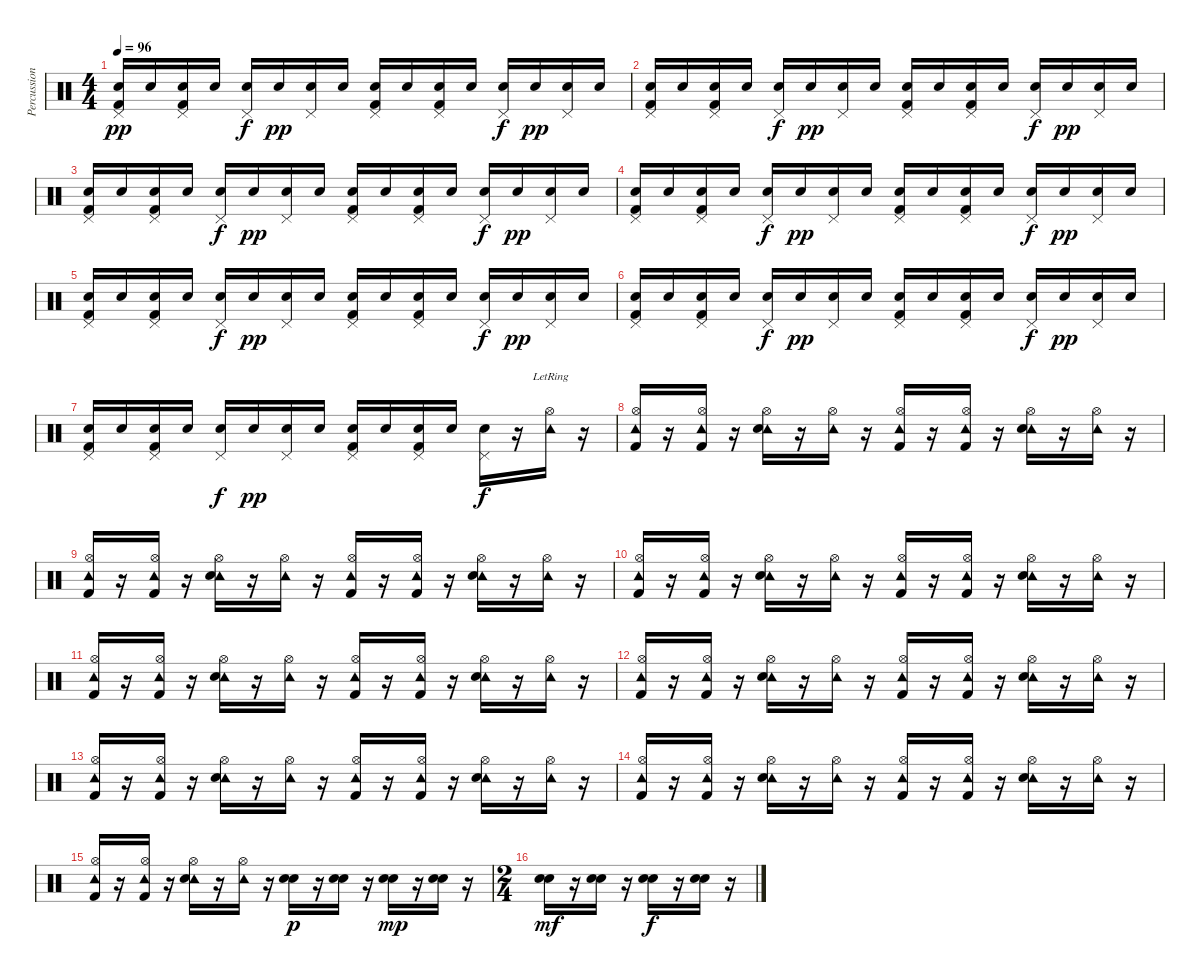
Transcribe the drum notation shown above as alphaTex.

\track ("Percussions" "Percussion") {instrument percussion}
\staff {score}
\articulation defaults
\ts (4 4)
\tempo 96
\clef neutral
\ks c
("Pedal Hi-Hat (hit)" "Snare (hit) 2" "Kick (hit) 2").16{dy pp} "Snare (hit) 2".16 ("Pedal Hi-Hat (hit)" "Snare (hit) 2" "Kick (hit) 2").16 "Snare (hit) 2".16 ("Pedal Hi-Hat (hit)" "Electric Snare (hit)").16{dy f} "Snare (hit) 2".16{dy pp} ("Pedal Hi-Hat (hit)" "Snare (hit) 2").16 "Snare (hit) 2".16 ("Pedal Hi-Hat (hit)" "Snare (hit) 2" "Kick (hit) 2").16 "Snare (hit) 2".16 ("Pedal Hi-Hat (hit)" "Snare (hit) 2" "Kick (hit) 2").16 "Snare (hit) 2".16 ("Pedal Hi-Hat (hit)" "Electric Snare (hit)").16{dy f} "Snare (hit) 2".16{dy pp} ("Pedal Hi-Hat (hit)" "Snare (hit) 2").16 "Snare (hit) 2".16 |
("Pedal Hi-Hat (hit)" "Snare (hit) 2" "Kick (hit) 2").16 "Snare (hit) 2".16 ("Pedal Hi-Hat (hit)" "Snare (hit) 2" "Kick (hit) 2").16 "Snare (hit) 2".16 ("Pedal Hi-Hat (hit)" "Electric Snare (hit)").16{dy f} "Snare (hit) 2".16{dy pp} ("Pedal Hi-Hat (hit)" "Snare (hit) 2").16 "Snare (hit) 2".16 ("Pedal Hi-Hat (hit)" "Snare (hit) 2" "Kick (hit) 2").16 "Snare (hit) 2".16 ("Pedal Hi-Hat (hit)" "Snare (hit) 2" "Kick (hit) 2").16 "Snare (hit) 2".16 ("Pedal Hi-Hat (hit)" "Electric Snare (hit)").16{dy f} "Snare (hit) 2".16{dy pp} ("Pedal Hi-Hat (hit)" "Snare (hit) 2").16 "Snare (hit) 2".16 |
("Pedal Hi-Hat (hit)" "Snare (hit) 2" "Kick (hit) 2").16 "Snare (hit) 2".16 ("Pedal Hi-Hat (hit)" "Snare (hit) 2" "Kick (hit) 2").16 "Snare (hit) 2".16 ("Pedal Hi-Hat (hit)" "Electric Snare (hit)").16{dy f} "Snare (hit) 2".16{dy pp} ("Pedal Hi-Hat (hit)" "Snare (hit) 2").16 "Snare (hit) 2".16 ("Pedal Hi-Hat (hit)" "Snare (hit) 2" "Kick (hit) 2").16 "Snare (hit) 2".16 ("Pedal Hi-Hat (hit)" "Snare (hit) 2" "Kick (hit) 2").16 "Snare (hit) 2".16 ("Pedal Hi-Hat (hit)" "Electric Snare (hit)").16{dy f} "Snare (hit) 2".16{dy pp} ("Pedal Hi-Hat (hit)" "Snare (hit) 2").16 "Snare (hit) 2".16 |
("Pedal Hi-Hat (hit)" "Snare (hit) 2" "Kick (hit) 2").16 "Snare (hit) 2".16 ("Pedal Hi-Hat (hit)" "Snare (hit) 2" "Kick (hit) 2").16 "Snare (hit) 2".16 ("Pedal Hi-Hat (hit)" "Electric Snare (hit)").16{dy f} "Snare (hit) 2".16{dy pp} ("Pedal Hi-Hat (hit)" "Snare (hit) 2").16 "Snare (hit) 2".16 ("Pedal Hi-Hat (hit)" "Snare (hit) 2" "Kick (hit) 2").16 "Snare (hit) 2".16 ("Pedal Hi-Hat (hit)" "Snare (hit) 2" "Kick (hit) 2").16 "Snare (hit) 2".16 ("Pedal Hi-Hat (hit)" "Electric Snare (hit)").16{dy f} "Snare (hit) 2".16{dy pp} ("Pedal Hi-Hat (hit)" "Snare (hit) 2").16 "Snare (hit) 2".16 |
("Pedal Hi-Hat (hit)" "Snare (hit) 2" "Kick (hit) 2").16 "Snare (hit) 2".16 ("Pedal Hi-Hat (hit)" "Snare (hit) 2" "Kick (hit) 2").16 "Snare (hit) 2".16 ("Pedal Hi-Hat (hit)" "Electric Snare (hit)").16{dy f} "Snare (hit) 2".16{dy pp} ("Pedal Hi-Hat (hit)" "Snare (hit) 2").16 "Snare (hit) 2".16 ("Pedal Hi-Hat (hit)" "Snare (hit) 2" "Kick (hit) 2").16 "Snare (hit) 2".16 ("Pedal Hi-Hat (hit)" "Snare (hit) 2" "Kick (hit) 2").16 "Snare (hit) 2".16 ("Pedal Hi-Hat (hit)" "Electric Snare (hit)").16{dy f} "Snare (hit) 2".16{dy pp} ("Pedal Hi-Hat (hit)" "Snare (hit) 2").16 "Snare (hit) 2".16 |
("Pedal Hi-Hat (hit)" "Snare (hit) 2" "Kick (hit) 2").16 "Snare (hit) 2".16 ("Pedal Hi-Hat (hit)" "Snare (hit) 2" "Kick (hit) 2").16 "Snare (hit) 2".16 ("Pedal Hi-Hat (hit)" "Electric Snare (hit)").16{dy f} "Snare (hit) 2".16{dy pp} ("Pedal Hi-Hat (hit)" "Snare (hit) 2").16 "Snare (hit) 2".16 ("Pedal Hi-Hat (hit)" "Snare (hit) 2" "Kick (hit) 2").16 "Snare (hit) 2".16 ("Pedal Hi-Hat (hit)" "Snare (hit) 2" "Kick (hit) 2").16 "Snare (hit) 2".16 ("Pedal Hi-Hat (hit)" "Electric Snare (hit)").16{dy f} "Snare (hit) 2".16{dy pp} ("Pedal Hi-Hat (hit)" "Snare (hit) 2").16 "Snare (hit) 2".16 |
("Pedal Hi-Hat (hit)" "Snare (hit) 2" "Kick (hit) 2").16 "Snare (hit) 2".16 ("Pedal Hi-Hat (hit)" "Snare (hit) 2" "Kick (hit) 2").16 "Snare (hit) 2".16 ("Pedal Hi-Hat (hit)" "Electric Snare (hit)").16{dy f} "Snare (hit) 2".16{dy pp} ("Pedal Hi-Hat (hit)" "Snare (hit) 2").16 "Snare (hit) 2".16 ("Pedal Hi-Hat (hit)" "Snare (hit) 2" "Kick (hit) 2").16 "Snare (hit) 2".16 ("Pedal Hi-Hat (hit)" "Snare (hit) 2" "Kick (hit) 2").16 "Snare (hit) 2".16 ("Pedal Hi-Hat (hit)" "Electric Snare (hit)").16{dy f} r.16 ("Hi-Hat (open)"{lr} "Tambourine (hit)").16 r.16 |
("Hi-Hat (open)" "Tambourine (hit)" "Kick (hit) 2").16 r.16 ("Hi-Hat (open)" "Tambourine (hit)" "Kick (hit) 2").16 r.16 ("Hi-Hat (open)" "Tambourine (hit)" "Electric Snare (hit)").16 r.16 ("Hi-Hat (open)" "Tambourine (hit)").16 r.16 ("Hi-Hat (open)" "Tambourine (hit)" "Kick (hit) 2").16 r.16 ("Hi-Hat (open)" "Tambourine (hit)" "Kick (hit) 2").16 r.16 ("Hi-Hat (open)" "Tambourine (hit)" "Electric Snare (hit)").16 r.16 ("Hi-Hat (open)" "Tambourine (hit)").16 r.16 |
("Hi-Hat (open)" "Tambourine (hit)" "Kick (hit) 2").16 r.16 ("Hi-Hat (open)" "Tambourine (hit)" "Kick (hit) 2").16 r.16 ("Hi-Hat (open)" "Tambourine (hit)" "Electric Snare (hit)").16 r.16 ("Hi-Hat (open)" "Tambourine (hit)").16 r.16 ("Hi-Hat (open)" "Tambourine (hit)" "Kick (hit) 2").16 r.16 ("Hi-Hat (open)" "Tambourine (hit)" "Kick (hit) 2").16 r.16 ("Hi-Hat (open)" "Tambourine (hit)" "Electric Snare (hit)").16 r.16 ("Hi-Hat (open)" "Tambourine (hit)").16 r.16 |
("Hi-Hat (open)" "Tambourine (hit)" "Kick (hit) 2").16 r.16 ("Hi-Hat (open)" "Tambourine (hit)" "Kick (hit) 2").16 r.16 ("Hi-Hat (open)" "Tambourine (hit)" "Electric Snare (hit)").16 r.16 ("Hi-Hat (open)" "Tambourine (hit)").16 r.16 ("Hi-Hat (open)" "Tambourine (hit)" "Kick (hit) 2").16 r.16 ("Hi-Hat (open)" "Tambourine (hit)" "Kick (hit) 2").16 r.16 ("Hi-Hat (open)" "Tambourine (hit)" "Electric Snare (hit)").16 r.16 ("Hi-Hat (open)" "Tambourine (hit)").16 r.16 |
("Hi-Hat (open)" "Tambourine (hit)" "Kick (hit) 2").16 r.16 ("Hi-Hat (open)" "Tambourine (hit)" "Kick (hit) 2").16 r.16 ("Hi-Hat (open)" "Tambourine (hit)" "Electric Snare (hit)").16 r.16 ("Hi-Hat (open)" "Tambourine (hit)").16 r.16 ("Hi-Hat (open)" "Tambourine (hit)" "Kick (hit) 2").16 r.16 ("Hi-Hat (open)" "Tambourine (hit)" "Kick (hit) 2").16 r.16 ("Hi-Hat (open)" "Tambourine (hit)" "Electric Snare (hit)").16 r.16 ("Hi-Hat (open)" "Tambourine (hit)").16 r.16 |
("Hi-Hat (open)" "Tambourine (hit)" "Kick (hit) 2").16 r.16 ("Hi-Hat (open)" "Tambourine (hit)" "Kick (hit) 2").16 r.16 ("Hi-Hat (open)" "Tambourine (hit)" "Electric Snare (hit)").16 r.16 ("Hi-Hat (open)" "Tambourine (hit)").16 r.16 ("Hi-Hat (open)" "Tambourine (hit)" "Kick (hit) 2").16 r.16 ("Hi-Hat (open)" "Tambourine (hit)" "Kick (hit) 2").16 r.16 ("Hi-Hat (open)" "Tambourine (hit)" "Electric Snare (hit)").16 r.16 ("Hi-Hat (open)" "Tambourine (hit)").16 r.16 |
("Hi-Hat (open)" "Tambourine (hit)" "Kick (hit) 2").16 r.16 ("Hi-Hat (open)" "Tambourine (hit)" "Kick (hit) 2").16 r.16 ("Hi-Hat (open)" "Tambourine (hit)" "Electric Snare (hit)").16 r.16 ("Hi-Hat (open)" "Tambourine (hit)").16 r.16 ("Hi-Hat (open)" "Tambourine (hit)" "Kick (hit) 2").16 r.16 ("Hi-Hat (open)" "Tambourine (hit)" "Kick (hit) 2").16 r.16 ("Hi-Hat (open)" "Tambourine (hit)" "Electric Snare (hit)").16 r.16 ("Hi-Hat (open)" "Tambourine (hit)").16 r.16 |
("Hi-Hat (open)" "Tambourine (hit)" "Kick (hit) 2").16 r.16 ("Hi-Hat (open)" "Tambourine (hit)" "Kick (hit) 2").16 r.16 ("Hi-Hat (open)" "Tambourine (hit)" "Electric Snare (hit)").16 r.16 ("Hi-Hat (open)" "Tambourine (hit)").16 r.16 ("Hi-Hat (open)" "Tambourine (hit)" "Kick (hit) 2").16 r.16 ("Hi-Hat (open)" "Tambourine (hit)" "Kick (hit) 2").16 r.16 ("Hi-Hat (open)" "Tambourine (hit)" "Electric Snare (hit)").16 r.16 ("Hi-Hat (open)" "Tambourine (hit)").16 r.16 |
("Hi-Hat (open)" "Tambourine (hit)" "Kick (hit) 2").16 r.16 ("Hi-Hat (open)" "Tambourine (hit)" "Kick (hit) 2").16 r.16 ("Hi-Hat (open)" "Tambourine (hit)" "Electric Snare (hit)").16 r.16 ("Hi-Hat (open)" "Tambourine (hit)").16 r.16 ("Snare (hit) 2" "Electric Snare (hit)").16{dy p} r.16 ("Snare (hit) 2" "Electric Snare (hit)").16 r.16 ("Snare (hit) 2" "Electric Snare (hit)").16{dy mp} r.16 ("Snare (hit) 2" "Electric Snare (hit)").16 r.16 |
\ts (2 4)
("Snare (hit) 2" "Electric Snare (hit)").16{dy mf} r.16 ("Snare (hit) 2" "Electric Snare (hit)").16 r.16 ("Snare (hit) 2" "Electric Snare (hit)").16{dy f} r.16 ("Snare (hit) 2" "Electric Snare (hit)").16 r.16
